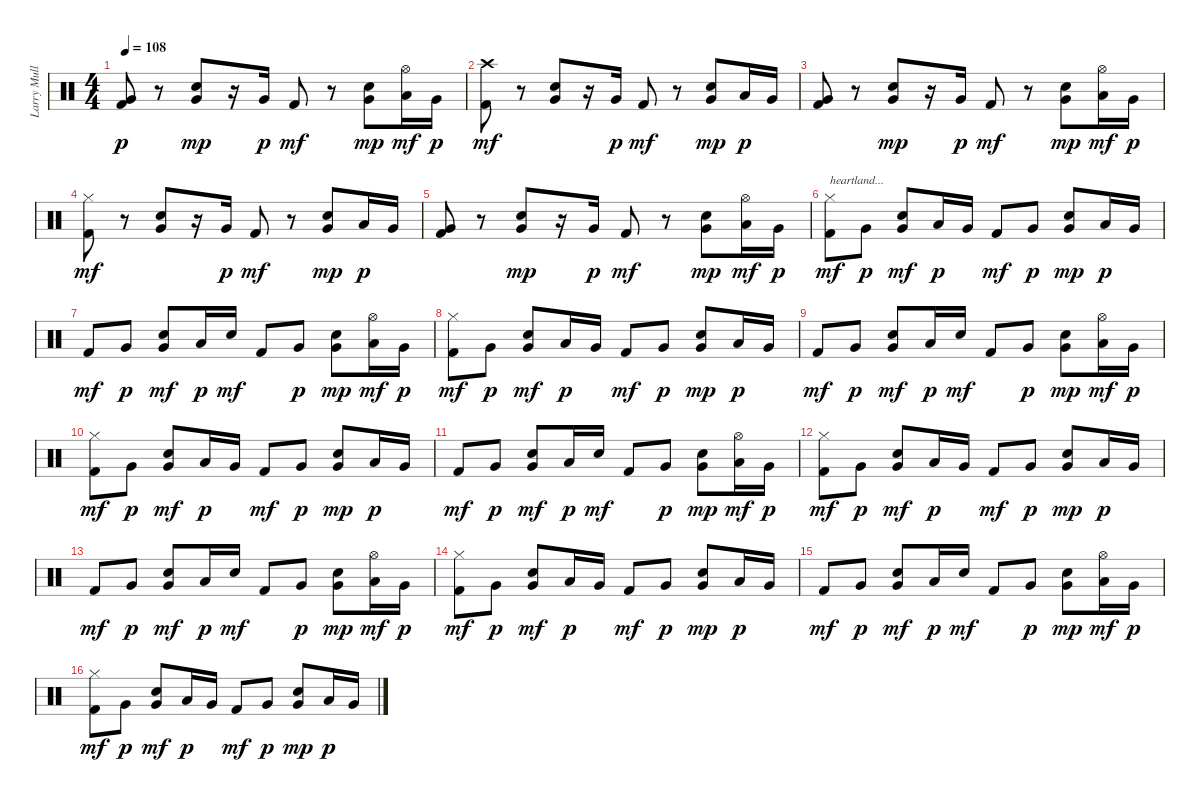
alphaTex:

\track ("Larry Mullen Jr." "Larry Mull") {instrument percussion}
\staff {score}
\articulation defaults
\ts (4 4)
\tempo 108
\clef neutral
\ks c
("Kick (hit) 2" "Very Low Tom (hit)").8{dy p} r.8 ("Electric Snare (hit)" "Very Low Tom (hit)").8{dy mp} r.16 "Very Low Tom (hit)".16{dy p} "Kick (hit) 2".8{dy mf} r.8 ("Electric Snare (hit)" "Very Low Tom (hit)").8{dy mp} ("Low Floor Tom (hit)" "Hi-Hat (open)").16{dy mf} "Very Low Tom (hit)".16{dy p} |
("Kick (hit) 2" "Crash high (hit)").8{dy mf} r.8 ("Electric Snare (hit)" "Very Low Tom (hit)").8 r.16 "Very Low Tom (hit)".16{dy p} "Kick (hit) 2".8{dy mf} r.8 ("Electric Snare (hit)" "Very Low Tom (hit)").8{dy mp} "Low Floor Tom (hit)".16{dy p} "Very Low Tom (hit)".16 |
("Kick (hit) 2" "Very Low Tom (hit)").8 r.8 ("Electric Snare (hit)" "Very Low Tom (hit)").8{dy mp} r.16 "Very Low Tom (hit)".16{dy p} "Kick (hit) 2".8{dy mf} r.8 ("Electric Snare (hit)" "Very Low Tom (hit)").8{dy mp} ("Low Floor Tom (hit)" "Hi-Hat (open)").16{dy mf} "Very Low Tom (hit)".16{dy p} |
("Kick (hit) 2" "Hi-Hat (closed)").8{dy mf} r.8 ("Electric Snare (hit)" "Very Low Tom (hit)").8 r.16 "Very Low Tom (hit)".16{dy p} "Kick (hit) 2".8{dy mf} r.8 ("Electric Snare (hit)" "Very Low Tom (hit)").8{dy mp} "Low Floor Tom (hit)".16{dy p} "Very Low Tom (hit)".16 |
("Kick (hit) 2" "Very Low Tom (hit)").8 r.8 ("Electric Snare (hit)" "Very Low Tom (hit)").8{dy mp} r.16 "Very Low Tom (hit)".16{dy p} "Kick (hit) 2".8{dy mf} r.8 ("Electric Snare (hit)" "Very Low Tom (hit)").8{dy mp} ("Low Floor Tom (hit)" "Hi-Hat (open)").16{dy mf} "Very Low Tom (hit)".16{dy p} |
("Kick (hit) 2" "Hi-Hat (closed)").8{txt "heartland..." dy mf} "Very Low Tom (hit)".8{dy p} ("Electric Snare (hit)" "Very Low Tom (hit)").8{dy mf} "Low Floor Tom (hit)".16{dy p} "Very Low Tom (hit)".16 "Kick (hit) 2".8{dy mf} "Very Low Tom (hit)".8{dy p} ("Electric Snare (hit)" "Very Low Tom (hit)").8{dy mp} "Low Floor Tom (hit)".16{dy p} "Very Low Tom (hit)".16 |
"Kick (hit) 2".8{dy mf} "Very Low Tom (hit)".8{dy p} ("Electric Snare (hit)" "Very Low Tom (hit)").8{dy mf} "Low Floor Tom (hit)".16{dy p} "Electric Snare (hit)".16{dy mf} "Kick (hit) 2".8 "Very Low Tom (hit)".8{dy p} ("Electric Snare (hit)" "Very Low Tom (hit)").8{dy mp} ("Low Floor Tom (hit)" "Hi-Hat (open)").16{dy mf} "Very Low Tom (hit)".16{dy p} |
("Kick (hit) 2" "Hi-Hat (closed)").8{dy mf} "Very Low Tom (hit)".8{dy p} ("Electric Snare (hit)" "Very Low Tom (hit)").8{dy mf} "Low Floor Tom (hit)".16{dy p} "Very Low Tom (hit)".16 "Kick (hit) 2".8{dy mf} "Very Low Tom (hit)".8{dy p} ("Electric Snare (hit)" "Very Low Tom (hit)").8{dy mp} "Low Floor Tom (hit)".16{dy p} "Very Low Tom (hit)".16 |
"Kick (hit) 2".8{dy mf} "Very Low Tom (hit)".8{dy p} ("Electric Snare (hit)" "Very Low Tom (hit)").8{dy mf} "Low Floor Tom (hit)".16{dy p} "Electric Snare (hit)".16{dy mf} "Kick (hit) 2".8 "Very Low Tom (hit)".8{dy p} ("Electric Snare (hit)" "Very Low Tom (hit)").8{dy mp} ("Low Floor Tom (hit)" "Hi-Hat (open)").16{dy mf} "Very Low Tom (hit)".16{dy p} |
("Kick (hit) 2" "Hi-Hat (closed)").8{dy mf} "Very Low Tom (hit)".8{dy p} ("Electric Snare (hit)" "Very Low Tom (hit)").8{dy mf} "Low Floor Tom (hit)".16{dy p} "Very Low Tom (hit)".16 "Kick (hit) 2".8{dy mf} "Very Low Tom (hit)".8{dy p} ("Electric Snare (hit)" "Very Low Tom (hit)").8{dy mp} "Low Floor Tom (hit)".16{dy p} "Very Low Tom (hit)".16 |
"Kick (hit) 2".8{dy mf} "Very Low Tom (hit)".8{dy p} ("Electric Snare (hit)" "Very Low Tom (hit)").8{dy mf} "Low Floor Tom (hit)".16{dy p} "Electric Snare (hit)".16{dy mf} "Kick (hit) 2".8 "Very Low Tom (hit)".8{dy p} ("Electric Snare (hit)" "Very Low Tom (hit)").8{dy mp} ("Low Floor Tom (hit)" "Hi-Hat (open)").16{dy mf} "Very Low Tom (hit)".16{dy p} |
("Kick (hit) 2" "Hi-Hat (closed)").8{dy mf} "Very Low Tom (hit)".8{dy p} ("Electric Snare (hit)" "Very Low Tom (hit)").8{dy mf} "Low Floor Tom (hit)".16{dy p} "Very Low Tom (hit)".16 "Kick (hit) 2".8{dy mf} "Very Low Tom (hit)".8{dy p} ("Electric Snare (hit)" "Very Low Tom (hit)").8{dy mp} "Low Floor Tom (hit)".16{dy p} "Very Low Tom (hit)".16 |
"Kick (hit) 2".8{dy mf} "Very Low Tom (hit)".8{dy p} ("Electric Snare (hit)" "Very Low Tom (hit)").8{dy mf} "Low Floor Tom (hit)".16{dy p} "Electric Snare (hit)".16{dy mf} "Kick (hit) 2".8 "Very Low Tom (hit)".8{dy p} ("Electric Snare (hit)" "Very Low Tom (hit)").8{dy mp} ("Low Floor Tom (hit)" "Hi-Hat (open)").16{dy mf} "Very Low Tom (hit)".16{dy p} |
("Kick (hit) 2" "Hi-Hat (closed)").8{dy mf} "Very Low Tom (hit)".8{dy p} ("Electric Snare (hit)" "Very Low Tom (hit)").8{dy mf} "Low Floor Tom (hit)".16{dy p} "Very Low Tom (hit)".16 "Kick (hit) 2".8{dy mf} "Very Low Tom (hit)".8{dy p} ("Electric Snare (hit)" "Very Low Tom (hit)").8{dy mp} "Low Floor Tom (hit)".16{dy p} "Very Low Tom (hit)".16 |
"Kick (hit) 2".8{dy mf} "Very Low Tom (hit)".8{dy p} ("Electric Snare (hit)" "Very Low Tom (hit)").8{dy mf} "Low Floor Tom (hit)".16{dy p} "Electric Snare (hit)".16{dy mf} "Kick (hit) 2".8 "Very Low Tom (hit)".8{dy p} ("Electric Snare (hit)" "Very Low Tom (hit)").8{dy mp} ("Low Floor Tom (hit)" "Hi-Hat (open)").16{dy mf} "Very Low Tom (hit)".16{dy p} |
("Kick (hit) 2" "Hi-Hat (closed)").8{dy mf} "Very Low Tom (hit)".8{dy p} ("Electric Snare (hit)" "Very Low Tom (hit)").8{dy mf} "Low Floor Tom (hit)".16{dy p} "Very Low Tom (hit)".16 "Kick (hit) 2".8{dy mf} "Very Low Tom (hit)".8{dy p} ("Electric Snare (hit)" "Very Low Tom (hit)").8{dy mp} "Low Floor Tom (hit)".16{dy p} "Very Low Tom (hit)".16
